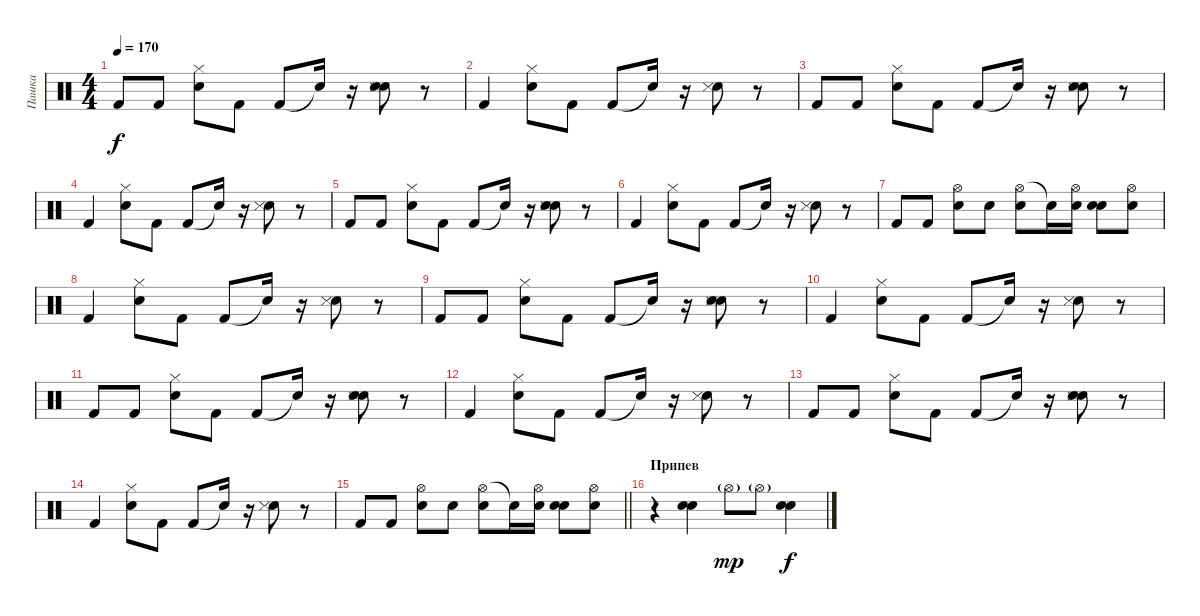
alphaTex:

\track ("Пашка" "Пашка") {instrument percussion}
\staff {score}
\articulation defaults
\ts (4 4)
\tempo 170
\clef neutral
\ks c "Kick (hit) 2".8{dy f} "Kick (hit) 2".8
("Hi-Hat (closed)" "Snare (hit) 2").8 "Kick (hit) 2".8 "Kick (hit) 2".8 "Snare (hit)"{t}.16 r.16 ("Metronome (bell)" "Snare (side stick) 3" "Electric Snare (hit)").8 r.8 |
"Kick (hit) 2".4 ("Hi-Hat (closed)" "Snare (hit) 2").8 "Kick (hit) 2".8 "Kick (hit) 2".8 "Snare (hit)"{t}.16 r.16 ("Metronome (bell)" "Snare (side stick) 3").8 r.8 |
"Kick (hit) 2".8 "Kick (hit) 2".8 ("Hi-Hat (closed)" "Snare (hit) 2").8 "Kick (hit) 2".8 "Kick (hit) 2".8 "Snare (hit)"{t}.16 r.16 ("Metronome (bell)" "Snare (side stick) 3" "Electric Snare (hit)").8 r.8 |
"Kick (hit) 2".4 ("Hi-Hat (closed)" "Snare (hit) 2").8 "Kick (hit) 2".8 "Kick (hit) 2".8 "Snare (hit)"{t}.16 r.16 ("Metronome (bell)" "Snare (side stick) 3").8 r.8 |
"Kick (hit) 2".8 "Kick (hit) 2".8 ("Hi-Hat (closed)" "Snare (hit) 2").8 "Kick (hit) 2".8 "Kick (hit) 2".8 "Snare (hit)"{t}.16 r.16 ("Metronome (bell)" "Snare (side stick) 3" "Electric Snare (hit)").8 r.8 |
"Kick (hit) 2".4 ("Hi-Hat (closed)" "Snare (hit) 2").8 "Kick (hit) 2".8 "Kick (hit) 2".8 "Snare (hit)"{t}.16 r.16 ("Metronome (bell)" "Snare (side stick) 3").8 r.8 |
"Kick (hit) 2".8 "Kick (hit) 2".8 ("Hi-Hat (open)" "Electric Snare (hit)").8 "Electric Snare (hit)".8 ("Hi-Hat (open)" "Electric Snare (hit)").8 "Snare (hit)"{t}.16 ("Electric Snare (hit)" "Hi-Hat (open)").16 ("Snare (hit) 2" "Electric Snare (hit)").8 ("Electric Snare (hit)" "Hi-Hat (open)").8 |
"Kick (hit) 2".4 ("Hi-Hat (closed)" "Snare (hit) 2").8 "Kick (hit) 2".8 "Kick (hit) 2".8 "Snare (hit)"{t}.16 r.16 ("Metronome (bell)" "Snare (side stick) 3").8 r.8 |
"Kick (hit) 2".8 "Kick (hit) 2".8 ("Hi-Hat (closed)" "Snare (hit) 2").8 "Kick (hit) 2".8 "Kick (hit) 2".8 "Snare (hit)"{t}.16 r.16 ("Metronome (bell)" "Snare (side stick) 3" "Electric Snare (hit)").8 r.8 |
"Kick (hit) 2".4 ("Hi-Hat (closed)" "Snare (hit) 2").8 "Kick (hit) 2".8 "Kick (hit) 2".8 "Snare (hit)"{t}.16 r.16 ("Metronome (bell)" "Snare (side stick) 3").8 r.8 |
"Kick (hit) 2".8 "Kick (hit) 2".8 ("Hi-Hat (closed)" "Snare (hit) 2").8 "Kick (hit) 2".8 "Kick (hit) 2".8 "Snare (hit)"{t}.16 r.16 ("Metronome (bell)" "Snare (side stick) 3" "Electric Snare (hit)").8 r.8 |
"Kick (hit) 2".4 ("Hi-Hat (closed)" "Snare (hit) 2").8 "Kick (hit) 2".8 "Kick (hit) 2".8 "Snare (hit)"{t}.16 r.16 ("Metronome (bell)" "Snare (side stick) 3").8 r.8 |
"Kick (hit) 2".8 "Kick (hit) 2".8 ("Hi-Hat (closed)" "Snare (hit) 2").8 "Kick (hit) 2".8 "Kick (hit) 2".8 "Snare (hit)"{t}.16 r.16 ("Metronome (bell)" "Snare (side stick) 3" "Electric Snare (hit)").8 r.8 |
"Kick (hit) 2".4 ("Hi-Hat (closed)" "Snare (hit) 2").8 "Kick (hit) 2".8 "Kick (hit) 2".8 "Snare (hit)"{t}.16 r.16 ("Metronome (bell)" "Snare (side stick) 3").8 r.8 |
\barLineRight lightlight "Kick (hit) 2".8 "Kick (hit) 2".8
("Hi-Hat (open)" "Electric Snare (hit)").8 "Electric Snare (hit)".8 ("Hi-Hat (open)" "Electric Snare (hit)").8 "Snare (hit)"{t}.16 ("Electric Snare (hit)" "Hi-Hat (open)").16 ("Snare (hit) 2" "Electric Snare (hit)").8 ("Electric Snare (hit)" "Hi-Hat (open)").8 |
\section ("" "Припев")
r.4 ("Electric Snare (hit)" "Snare (hit) 2").4 "Hi-Hat (open)"{g}.8{dy mp} "Hi-Hat (open)"{g}.8 ("Electric Snare (hit)" "Snare (hit) 2").4{dy f}
